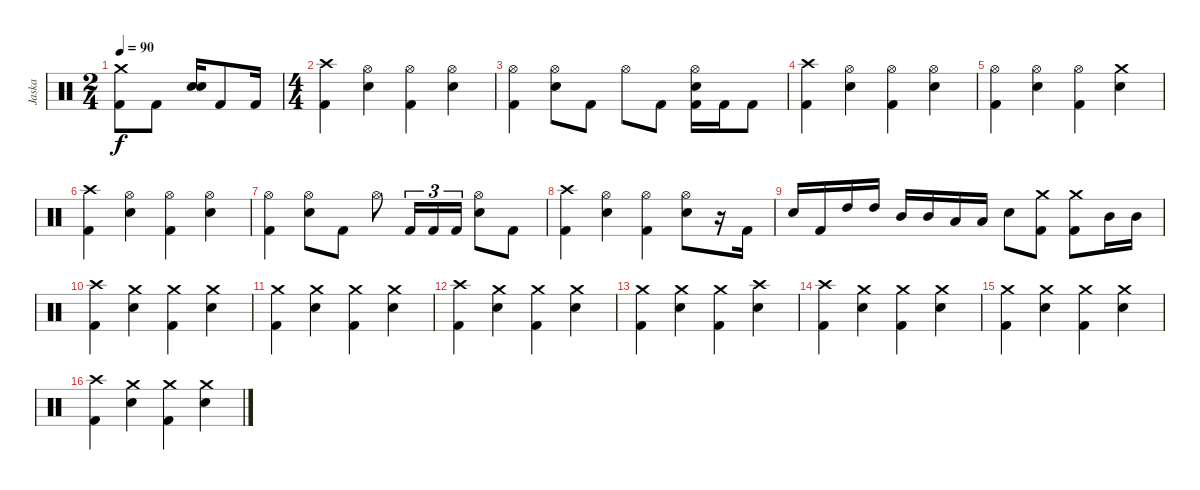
\track ("Jaska" "Jaska") {instrument percussion}
\staff {score}
\articulation defaults
\ts (2 4)
\tempo 90
\clef neutral
\ks c
("Crash medium (hit)" "Kick (hit) 2").8{dy f} "Kick (hit) 2".8 ("Snare (hit) 2" "Snare (hit) 2").16 "Kick (hit) 2".8 "Kick (hit) 2".16 |
\ts (4 4)
("Crash high (hit)" "Kick (hit) 2").4 ("Hi-Hat (open)" "Snare (hit) 2").4 ("Hi-Hat (open)" "Kick (hit) 2").4 ("Hi-Hat (open)" "Snare (hit) 2").4 |
("Hi-Hat (open)" "Kick (hit) 2").4 ("Hi-Hat (open)" "Snare (hit) 2").8 "Kick (hit) 2".8 "Hi-Hat (open)".8 "Kick (hit) 2".8 ("Hi-Hat (open)" "Snare (hit) 2" "Kick (hit) 2").16 "Kick (hit) 2".16 "Kick (hit) 2".8 |
("Crash high (hit)" "Kick (hit) 2").4 ("Hi-Hat (open)" "Snare (hit) 2").4 ("Hi-Hat (open)" "Kick (hit) 2").4 ("Hi-Hat (open)" "Snare (hit) 2").4 |
("Hi-Hat (open)" "Kick (hit) 2").4 ("Hi-Hat (open)" "Snare (hit) 2").4 ("Hi-Hat (open)" "Kick (hit) 2").4 ("Crash medium (hit)" "Snare (hit) 2").4 |
("Crash high (hit)" "Kick (hit) 2").4 ("Hi-Hat (open)" "Snare (hit) 2").4 ("Hi-Hat (open)" "Kick (hit) 2").4 ("Hi-Hat (open)" "Snare (hit) 2").4 |
("Hi-Hat (open)" "Kick (hit) 2").4 ("Hi-Hat (open)" "Snare (hit) 2").8 "Kick (hit) 2".8 "Hi-Hat (open)".8 "Kick (hit) 2".16{tu (3 2)} "Kick (hit) 2".16{tu (3 2)} "Kick (hit) 2".16{tu (3 2)} ("Hi-Hat (open)" "Snare (hit) 2").8 "Kick (hit) 2".8 |
("Crash high (hit)" "Kick (hit) 2").4 ("Hi-Hat (open)" "Snare (hit) 2").4 ("Hi-Hat (open)" "Kick (hit) 2").4 ("Hi-Hat (open)" "Snare (hit) 2").8 r.16 "Kick (hit) 2".16 |
"Snare (hit) 2".16 "Kick (hit) 2".16 "High Tom (hit)".16 "High Tom (hit)".16 "Mid Tom (hit)".16 "Mid Tom (hit)".16 "Low Tom (hit)".16 "Low Tom (hit)".16 "Snare (hit) 2".8 ("Crash medium (hit)" "Kick (hit) 2").8 ("Crash medium (hit)" "Kick (hit) 2").8 "Mid Tom (hit)".16 "Mid Tom (hit)".16 |
("Crash high (hit)" "Kick (hit) 2").4 ("Crash medium (hit)" "Snare (hit) 2").4 ("Crash medium (hit)" "Kick (hit) 2").4 ("Crash medium (hit)" "Snare (hit) 2").4 |
("Crash medium (hit)" "Kick (hit) 2").4 ("Crash medium (hit)" "Snare (hit) 2").4 ("Crash medium (hit)" "Kick (hit) 2").4 ("Crash medium (hit)" "Snare (hit) 2").4 |
("Crash high (hit)" "Kick (hit) 2").4 ("Crash medium (hit)" "Snare (hit) 2").4 ("Crash medium (hit)" "Kick (hit) 2").4 ("Crash medium (hit)" "Snare (hit) 2").4 |
("Crash medium (hit)" "Kick (hit) 2").4 ("Crash medium (hit)" "Snare (hit) 2").4 ("Crash medium (hit)" "Kick (hit) 2").4 ("Crash high (hit)" "Snare (hit) 2").4 |
("Crash high (hit)" "Kick (hit) 2").4 ("Crash medium (hit)" "Snare (hit) 2").4 ("Crash medium (hit)" "Kick (hit) 2").4 ("Crash medium (hit)" "Snare (hit) 2").4 |
("Crash medium (hit)" "Kick (hit) 2").4 ("Crash medium (hit)" "Snare (hit) 2").4 ("Crash medium (hit)" "Kick (hit) 2").4 ("Crash medium (hit)" "Snare (hit) 2").4 |
("Crash high (hit)" "Kick (hit) 2").4 ("Crash medium (hit)" "Snare (hit) 2").4 ("Crash medium (hit)" "Kick (hit) 2").4 ("Crash medium (hit)" "Snare (hit) 2").4
